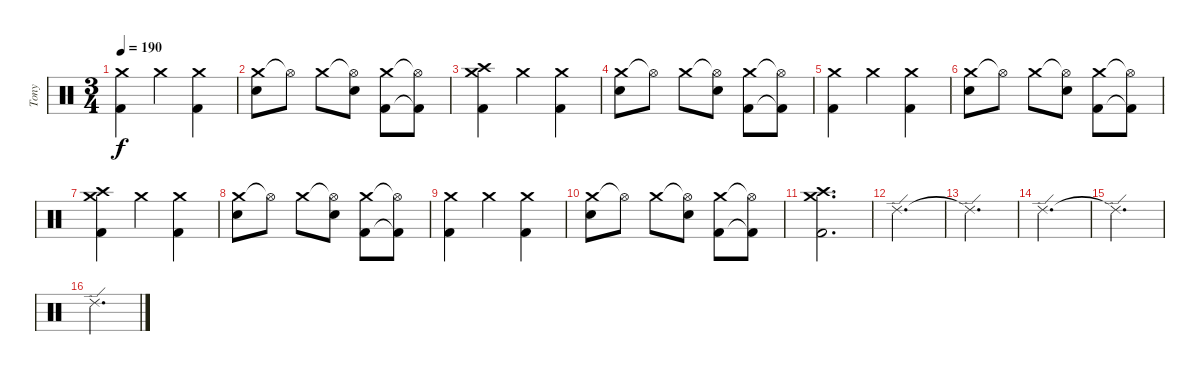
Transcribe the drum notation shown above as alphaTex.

\track ("Tony" "Tony") {instrument percussion}
\staff {score}
\articulation defaults
\ts (3 4)
\tempo 190
\clef neutral
\ks c
("Crash medium (hit)" "Kick (hit) 2").4{dy f} "Crash medium (hit)".4 ("Crash medium (hit)" "Kick (hit) 2").4 |
("Crash medium (hit)" "Snare (hit) 2").8 "Hi-Hat (open)"{t}.8 "Crash medium (hit)".8 ("Hi-Hat (open)"{t} "Snare (hit) 2").8 ("Crash medium (hit)" "Kick (hit) 2").8 ("Hi-Hat (open)"{t} "Kick (hit) 2"{t}).8 |
("Crash medium (hit)" "Crash high (hit)" "Kick (hit) 2").4 "Crash medium (hit)".4 ("Crash medium (hit)" "Kick (hit) 2").4 |
("Crash medium (hit)" "Snare (hit) 2").8 "Hi-Hat (open)"{t}.8 "Crash medium (hit)".8 ("Hi-Hat (open)"{t} "Snare (hit) 2").8 ("Crash medium (hit)" "Kick (hit) 2").8 ("Hi-Hat (open)"{t} "Kick (hit) 2"{t}).8 |
("Crash medium (hit)" "Kick (hit) 2").4 "Crash medium (hit)".4 ("Crash medium (hit)" "Kick (hit) 2").4 |
("Crash medium (hit)" "Snare (hit) 2").8 "Hi-Hat (open)"{t}.8 "Crash medium (hit)".8 ("Hi-Hat (open)"{t} "Snare (hit) 2").8 ("Crash medium (hit)" "Kick (hit) 2").8 ("Hi-Hat (open)"{t} "Kick (hit) 2"{t}).8 |
("Crash medium (hit)" "Crash high (hit)" "Kick (hit) 2").4 "Crash medium (hit)".4 ("Crash medium (hit)" "Kick (hit) 2").4 |
("Crash medium (hit)" "Snare (hit) 2").8 "Hi-Hat (open)"{t}.8 "Crash medium (hit)".8 ("Hi-Hat (open)"{t} "Snare (hit) 2").8 ("Crash medium (hit)" "Kick (hit) 2").8 ("Hi-Hat (open)"{t} "Kick (hit) 2"{t}).8 |
("Crash medium (hit)" "Kick (hit) 2").4 "Crash medium (hit)".4 ("Crash medium (hit)" "Kick (hit) 2").4 |
("Crash medium (hit)" "Snare (hit) 2").8 "Hi-Hat (open)"{t}.8 "Crash medium (hit)".8 ("Hi-Hat (open)"{t} "Snare (hit) 2").8 ("Crash medium (hit)" "Kick (hit) 2").8 ("Hi-Hat (open)"{t} "Kick (hit) 2"{t}).8 |
("Crash medium (hit)" "Crash high (hit)" "Kick (hit) 2").2{d} |
"Ride (edge) 2".2{d} |
"Ride (edge) 2"{t}.2{d} |
"Ride (edge) 2".2{d} |
"Ride (edge) 2"{t}.2{d} |
"Ride (edge) 2".2{d}
